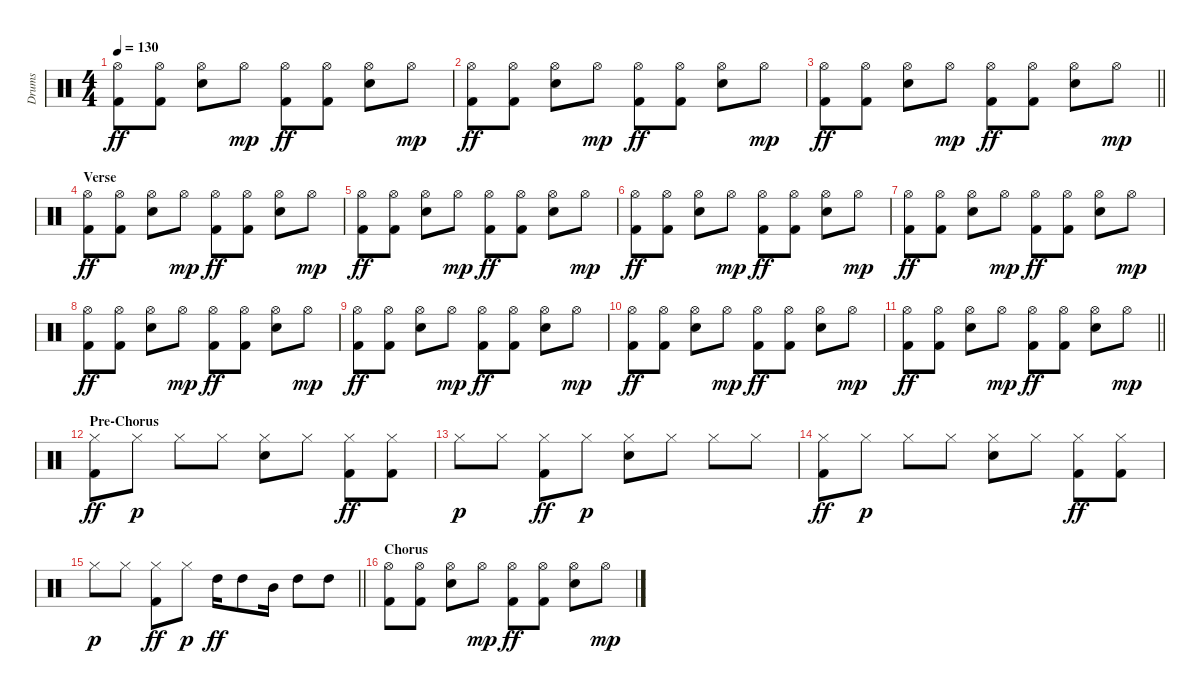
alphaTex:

\track ("Drums" "Drums") {instrument percussion}
\staff
\articulation defaults
\ts (4 4)
\tempo 130
\clef neutral
\ks c
("Hi-Hat (open)" "Kick (hit) 2").8{dy ff} ("Hi-Hat (open)" "Kick (hit) 2").8 ("Hi-Hat (open)" "Snare (hit) 2").8 "Hi-Hat (open)".8{dy mp} ("Hi-Hat (open)" "Kick (hit) 2").8{dy ff} ("Hi-Hat (open)" "Kick (hit) 2").8 ("Hi-Hat (open)" "Snare (hit) 2").8 "Hi-Hat (open)".8{dy mp} |
("Hi-Hat (open)" "Kick (hit) 2").8{dy ff} ("Hi-Hat (open)" "Kick (hit) 2").8 ("Hi-Hat (open)" "Snare (hit) 2").8 "Hi-Hat (open)".8{dy mp} ("Hi-Hat (open)" "Kick (hit) 2").8{dy ff} ("Hi-Hat (open)" "Kick (hit) 2").8 ("Hi-Hat (open)" "Snare (hit) 2").8 "Hi-Hat (open)".8{dy mp} |
\barLineRight lightlight
("Hi-Hat (open)" "Kick (hit) 2").8{dy ff} ("Hi-Hat (open)" "Kick (hit) 2").8 ("Hi-Hat (open)" "Snare (hit) 2").8 "Hi-Hat (open)".8{dy mp} ("Hi-Hat (open)" "Kick (hit) 2").8{dy ff} ("Hi-Hat (open)" "Kick (hit) 2").8 ("Hi-Hat (open)" "Snare (hit) 2").8 "Hi-Hat (open)".8{dy mp} |
\section ("" "Verse")
("Hi-Hat (open)" "Kick (hit) 2").8{dy ff} ("Hi-Hat (open)" "Kick (hit) 2").8 ("Hi-Hat (open)" "Snare (hit) 2").8 "Hi-Hat (open)".8{dy mp} ("Hi-Hat (open)" "Kick (hit) 2").8{dy ff} ("Hi-Hat (open)" "Kick (hit) 2").8 ("Hi-Hat (open)" "Snare (hit) 2").8 "Hi-Hat (open)".8{dy mp} |
("Hi-Hat (open)" "Kick (hit) 2").8{dy ff} ("Hi-Hat (open)" "Kick (hit) 2").8 ("Hi-Hat (open)" "Snare (hit) 2").8 "Hi-Hat (open)".8{dy mp} ("Hi-Hat (open)" "Kick (hit) 2").8{dy ff} ("Hi-Hat (open)" "Kick (hit) 2").8 ("Hi-Hat (open)" "Snare (hit) 2").8 "Hi-Hat (open)".8{dy mp} |
("Hi-Hat (open)" "Kick (hit) 2").8{dy ff} ("Hi-Hat (open)" "Kick (hit) 2").8 ("Hi-Hat (open)" "Snare (hit) 2").8 "Hi-Hat (open)".8{dy mp} ("Hi-Hat (open)" "Kick (hit) 2").8{dy ff} ("Hi-Hat (open)" "Kick (hit) 2").8 ("Hi-Hat (open)" "Snare (hit) 2").8 "Hi-Hat (open)".8{dy mp} |
("Hi-Hat (open)" "Kick (hit) 2").8{dy ff} ("Hi-Hat (open)" "Kick (hit) 2").8 ("Hi-Hat (open)" "Snare (hit) 2").8 "Hi-Hat (open)".8{dy mp} ("Hi-Hat (open)" "Kick (hit) 2").8{dy ff} ("Hi-Hat (open)" "Kick (hit) 2").8 ("Hi-Hat (open)" "Snare (hit) 2").8 "Hi-Hat (open)".8{dy mp} |
("Hi-Hat (open)" "Kick (hit) 2").8{dy ff} ("Hi-Hat (open)" "Kick (hit) 2").8 ("Hi-Hat (open)" "Snare (hit) 2").8 "Hi-Hat (open)".8{dy mp} ("Hi-Hat (open)" "Kick (hit) 2").8{dy ff} ("Hi-Hat (open)" "Kick (hit) 2").8 ("Hi-Hat (open)" "Snare (hit) 2").8 "Hi-Hat (open)".8{dy mp} |
("Hi-Hat (open)" "Kick (hit) 2").8{dy ff} ("Hi-Hat (open)" "Kick (hit) 2").8 ("Hi-Hat (open)" "Snare (hit) 2").8 "Hi-Hat (open)".8{dy mp} ("Hi-Hat (open)" "Kick (hit) 2").8{dy ff} ("Hi-Hat (open)" "Kick (hit) 2").8 ("Hi-Hat (open)" "Snare (hit) 2").8 "Hi-Hat (open)".8{dy mp} |
("Hi-Hat (open)" "Kick (hit) 2").8{dy ff} ("Hi-Hat (open)" "Kick (hit) 2").8 ("Hi-Hat (open)" "Snare (hit) 2").8 "Hi-Hat (open)".8{dy mp} ("Hi-Hat (open)" "Kick (hit) 2").8{dy ff} ("Hi-Hat (open)" "Kick (hit) 2").8 ("Hi-Hat (open)" "Snare (hit) 2").8 "Hi-Hat (open)".8{dy mp} |
\barLineRight lightlight
("Hi-Hat (open)" "Kick (hit) 2").8{dy ff} ("Hi-Hat (open)" "Kick (hit) 2").8 ("Hi-Hat (open)" "Snare (hit) 2").8 "Hi-Hat (open)".8{dy mp} ("Hi-Hat (open)" "Kick (hit) 2").8{dy ff} ("Hi-Hat (open)" "Kick (hit) 2").8 ("Hi-Hat (open)" "Snare (hit) 2").8 "Hi-Hat (open)".8{dy mp} |
\section ("" "Pre-Chorus")
("Hi-Hat (closed)" "Kick (hit) 2").8{dy ff} "Hi-Hat (closed)".8{dy p} "Hi-Hat (closed)".8 "Hi-Hat (closed)".8 ("Hi-Hat (closed)" "Snare (hit) 2").8 "Hi-Hat (closed)".8 ("Hi-Hat (closed)" "Kick (hit) 2").8{dy ff} ("Hi-Hat (closed)" "Kick (hit) 2").8 |
"Hi-Hat (closed)".8{dy p} "Hi-Hat (closed)".8 ("Hi-Hat (closed)" "Kick (hit) 2").8{dy ff} "Hi-Hat (closed)".8{dy p} ("Hi-Hat (closed)" "Snare (hit) 2").8 "Hi-Hat (closed)".8 "Hi-Hat (closed)".8 "Hi-Hat (closed)".8 |
("Hi-Hat (closed)" "Kick (hit) 2").8{dy ff} "Hi-Hat (closed)".8{dy p} "Hi-Hat (closed)".8 "Hi-Hat (closed)".8 ("Hi-Hat (closed)" "Snare (hit) 2").8 "Hi-Hat (closed)".8 ("Hi-Hat (closed)" "Kick (hit) 2").8{dy ff} ("Hi-Hat (closed)" "Kick (hit) 2").8 |
\barLineRight lightlight "Hi-Hat (closed)".8{dy p} "Hi-Hat (closed)".8
("Hi-Hat (closed)" "Kick (hit) 2").8{dy ff} "Hi-Hat (closed)".8{dy p} "High Tom (hit)".16{dy ff} "High Tom (hit)".8 "Mid Tom (hit)".16 "High Tom (hit)".8 "High Tom (hit)".8 |
\section ("" "Chorus")
("Hi-Hat (open)" "Kick (hit) 2").8 ("Hi-Hat (open)" "Kick (hit) 2").8 ("Hi-Hat (open)" "Snare (hit) 2").8 "Hi-Hat (open)".8{dy mp} ("Hi-Hat (open)" "Kick (hit) 2").8{dy ff} ("Hi-Hat (open)" "Kick (hit) 2").8 ("Hi-Hat (open)" "Snare (hit) 2").8 "Hi-Hat (open)".8{dy mp}
